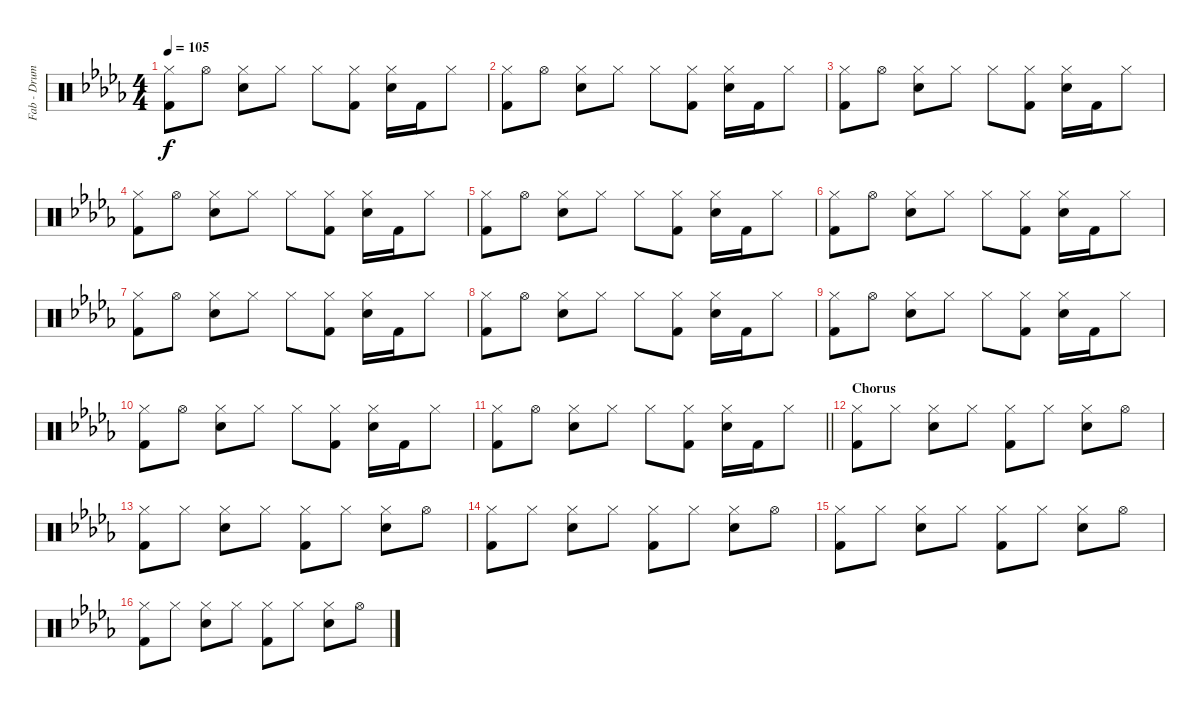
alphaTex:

\track ("Fab - Drums MIDI" "Fab - Drum") {instrument percussion}
\staff {score}
\articulation defaults
\ts (4 4)
\tempo 105
\clef neutral
\ks db
("Hi-Hat (closed)" "Kick (hit) 2").8{dy f} "Hi-Hat (open)".8 ("Hi-Hat (closed)" "Snare (hit) 2").8 "Hi-Hat (closed)".8 "Hi-Hat (closed)".8 ("Hi-Hat (closed)" "Kick (hit) 2").8 ("Hi-Hat (closed)" "Snare (hit) 2").16 "Kick (hit) 2".16 "Hi-Hat (closed)".8 |
("Hi-Hat (closed)" "Kick (hit) 2").8 "Hi-Hat (open)".8 ("Hi-Hat (closed)" "Snare (hit) 2").8 "Hi-Hat (closed)".8 "Hi-Hat (closed)".8 ("Hi-Hat (closed)" "Kick (hit) 2").8 ("Hi-Hat (closed)" "Snare (hit) 2").16 "Kick (hit) 2".16 "Hi-Hat (closed)".8 |
("Hi-Hat (closed)" "Kick (hit) 2").8 "Hi-Hat (open)".8 ("Hi-Hat (closed)" "Snare (hit) 2").8 "Hi-Hat (closed)".8 "Hi-Hat (closed)".8 ("Hi-Hat (closed)" "Kick (hit) 2").8 ("Hi-Hat (closed)" "Snare (hit) 2").16 "Kick (hit) 2".16 "Hi-Hat (closed)".8 |
("Hi-Hat (closed)" "Kick (hit) 2").8 "Hi-Hat (open)".8 ("Hi-Hat (closed)" "Snare (hit) 2").8 "Hi-Hat (closed)".8 "Hi-Hat (closed)".8 ("Hi-Hat (closed)" "Kick (hit) 2").8 ("Hi-Hat (closed)" "Snare (hit) 2").16 "Kick (hit) 2".16 "Hi-Hat (closed)".8 |
("Hi-Hat (closed)" "Kick (hit) 2").8 "Hi-Hat (open)".8 ("Hi-Hat (closed)" "Snare (hit) 2").8 "Hi-Hat (closed)".8 "Hi-Hat (closed)".8 ("Hi-Hat (closed)" "Kick (hit) 2").8 ("Hi-Hat (closed)" "Snare (hit) 2").16 "Kick (hit) 2".16 "Hi-Hat (closed)".8 |
("Hi-Hat (closed)" "Kick (hit) 2").8 "Hi-Hat (open)".8 ("Hi-Hat (closed)" "Snare (hit) 2").8 "Hi-Hat (closed)".8 "Hi-Hat (closed)".8 ("Hi-Hat (closed)" "Kick (hit) 2").8 ("Hi-Hat (closed)" "Snare (hit) 2").16 "Kick (hit) 2".16 "Hi-Hat (closed)".8 |
("Hi-Hat (closed)" "Kick (hit) 2").8 "Hi-Hat (open)".8 ("Hi-Hat (closed)" "Snare (hit) 2").8 "Hi-Hat (closed)".8 "Hi-Hat (closed)".8 ("Hi-Hat (closed)" "Kick (hit) 2").8 ("Hi-Hat (closed)" "Snare (hit) 2").16 "Kick (hit) 2".16 "Hi-Hat (closed)".8 |
("Hi-Hat (closed)" "Kick (hit) 2").8 "Hi-Hat (open)".8 ("Hi-Hat (closed)" "Snare (hit) 2").8 "Hi-Hat (closed)".8 "Hi-Hat (closed)".8 ("Hi-Hat (closed)" "Kick (hit) 2").8 ("Hi-Hat (closed)" "Snare (hit) 2").16 "Kick (hit) 2".16 "Hi-Hat (closed)".8 |
("Hi-Hat (closed)" "Kick (hit) 2").8 "Hi-Hat (open)".8 ("Hi-Hat (closed)" "Snare (hit) 2").8 "Hi-Hat (closed)".8 "Hi-Hat (closed)".8 ("Hi-Hat (closed)" "Kick (hit) 2").8 ("Hi-Hat (closed)" "Snare (hit) 2").16 "Kick (hit) 2".16 "Hi-Hat (closed)".8 |
("Hi-Hat (closed)" "Kick (hit) 2").8 "Hi-Hat (open)".8 ("Hi-Hat (closed)" "Snare (hit) 2").8 "Hi-Hat (closed)".8 "Hi-Hat (closed)".8 ("Hi-Hat (closed)" "Kick (hit) 2").8 ("Hi-Hat (closed)" "Snare (hit) 2").16 "Kick (hit) 2".16 "Hi-Hat (closed)".8 |
\barLineRight lightlight
("Hi-Hat (closed)" "Kick (hit) 2").8 "Hi-Hat (open)".8 ("Hi-Hat (closed)" "Snare (hit) 2").8 "Hi-Hat (closed)".8 "Hi-Hat (closed)".8 ("Hi-Hat (closed)" "Kick (hit) 2").8 ("Hi-Hat (closed)" "Snare (hit) 2").16 "Kick (hit) 2".16 "Hi-Hat (closed)".8 |
\section ("" "Chorus")
("Hi-Hat (closed)" "Kick (hit) 2").8 "Hi-Hat (closed)".8 ("Hi-Hat (closed)" "Snare (hit) 2").8 "Hi-Hat (closed)".8 ("Hi-Hat (closed)" "Kick (hit) 2").8 "Hi-Hat (closed)".8 ("Hi-Hat (closed)" "Snare (hit) 2").8 "Hi-Hat (open)".8 |
("Hi-Hat (closed)" "Kick (hit) 2").8 "Hi-Hat (closed)".8 ("Hi-Hat (closed)" "Snare (hit) 2").8 "Hi-Hat (closed)".8 ("Hi-Hat (closed)" "Kick (hit) 2").8 "Hi-Hat (closed)".8 ("Hi-Hat (closed)" "Snare (hit) 2").8 "Hi-Hat (open)".8 |
("Hi-Hat (closed)" "Kick (hit) 2").8 "Hi-Hat (closed)".8 ("Hi-Hat (closed)" "Snare (hit) 2").8 "Hi-Hat (closed)".8 ("Hi-Hat (closed)" "Kick (hit) 2").8 "Hi-Hat (closed)".8 ("Hi-Hat (closed)" "Snare (hit) 2").8 "Hi-Hat (open)".8 |
("Hi-Hat (closed)" "Kick (hit) 2").8 "Hi-Hat (closed)".8 ("Hi-Hat (closed)" "Snare (hit) 2").8 "Hi-Hat (closed)".8 ("Hi-Hat (closed)" "Kick (hit) 2").8 "Hi-Hat (closed)".8 ("Hi-Hat (closed)" "Snare (hit) 2").8 "Hi-Hat (open)".8 |
("Hi-Hat (closed)" "Kick (hit) 2").8 "Hi-Hat (closed)".8 ("Hi-Hat (closed)" "Snare (hit) 2").8 "Hi-Hat (closed)".8 ("Hi-Hat (closed)" "Kick (hit) 2").8 "Hi-Hat (closed)".8 ("Hi-Hat (closed)" "Snare (hit) 2").8 "Hi-Hat (open)".8
